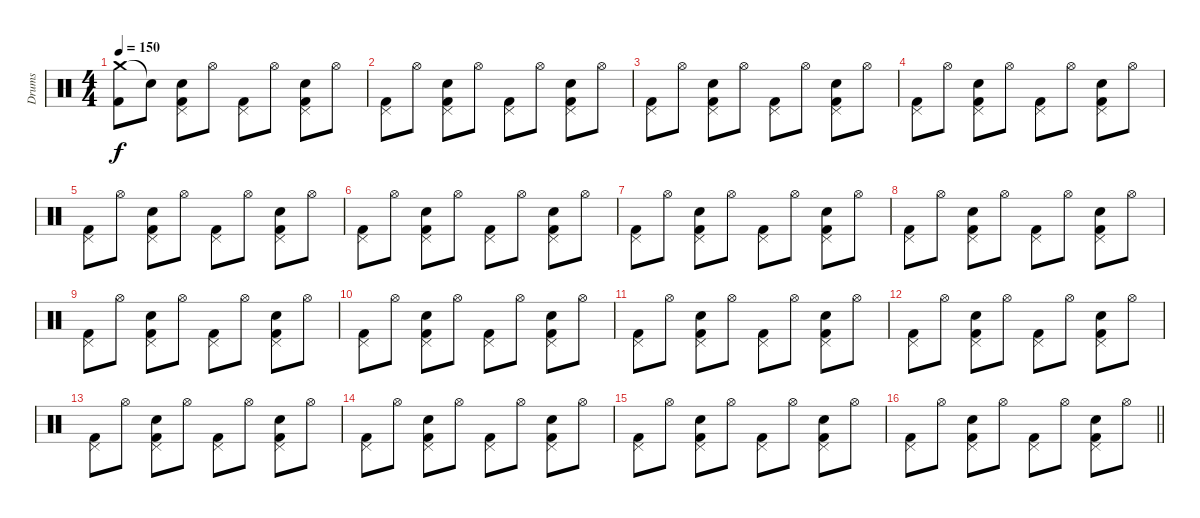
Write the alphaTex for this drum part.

\track ("Drums" "Drums") {instrument percussion}
\staff {score}
\articulation defaults
\ts (4 4)
\tempo 150
\clef neutral
\ks c
("Crash medium (hit)" "Kick (hit) 2").8{dy f} "Snare (hit)"{t}.8 ("Pedal Hi-Hat (hit)" "Electric Snare (hit)" "Kick (hit) 2").8 "Hi-Hat (open)".8 ("Pedal Hi-Hat (hit)" "Kick (hit) 2").8 "Hi-Hat (open)".8 ("Pedal Hi-Hat (hit)" "Electric Snare (hit)" "Kick (hit) 2").8 "Hi-Hat (open)".8 |
("Pedal Hi-Hat (hit)" "Kick (hit) 2").8 "Hi-Hat (open)".8 ("Pedal Hi-Hat (hit)" "Electric Snare (hit)" "Kick (hit) 2").8 "Hi-Hat (open)".8 ("Pedal Hi-Hat (hit)" "Kick (hit) 2").8 "Hi-Hat (open)".8 ("Pedal Hi-Hat (hit)" "Electric Snare (hit)" "Kick (hit) 2").8 "Hi-Hat (open)".8 |
("Pedal Hi-Hat (hit)" "Kick (hit) 2").8 "Hi-Hat (open)".8 ("Pedal Hi-Hat (hit)" "Electric Snare (hit)" "Kick (hit) 2").8 "Hi-Hat (open)".8 ("Pedal Hi-Hat (hit)" "Kick (hit) 2").8 "Hi-Hat (open)".8 ("Pedal Hi-Hat (hit)" "Electric Snare (hit)" "Kick (hit) 2").8 "Hi-Hat (open)".8 |
("Pedal Hi-Hat (hit)" "Kick (hit) 2").8 "Hi-Hat (open)".8 ("Pedal Hi-Hat (hit)" "Electric Snare (hit)" "Kick (hit) 2").8 "Hi-Hat (open)".8 ("Pedal Hi-Hat (hit)" "Kick (hit) 2").8 "Hi-Hat (open)".8 ("Pedal Hi-Hat (hit)" "Electric Snare (hit)" "Kick (hit) 2").8 "Hi-Hat (open)".8 |
("Pedal Hi-Hat (hit)" "Kick (hit) 2").8 "Hi-Hat (open)".8 ("Pedal Hi-Hat (hit)" "Electric Snare (hit)" "Kick (hit) 2").8 "Hi-Hat (open)".8 ("Pedal Hi-Hat (hit)" "Kick (hit) 2").8 "Hi-Hat (open)".8 ("Pedal Hi-Hat (hit)" "Electric Snare (hit)" "Kick (hit) 2").8 "Hi-Hat (open)".8 |
("Pedal Hi-Hat (hit)" "Kick (hit) 2").8 "Hi-Hat (open)".8 ("Pedal Hi-Hat (hit)" "Electric Snare (hit)" "Kick (hit) 2").8 "Hi-Hat (open)".8 ("Pedal Hi-Hat (hit)" "Kick (hit) 2").8 "Hi-Hat (open)".8 ("Pedal Hi-Hat (hit)" "Electric Snare (hit)" "Kick (hit) 2").8 "Hi-Hat (open)".8 |
("Pedal Hi-Hat (hit)" "Kick (hit) 2").8 "Hi-Hat (open)".8 ("Pedal Hi-Hat (hit)" "Electric Snare (hit)" "Kick (hit) 2").8 "Hi-Hat (open)".8 ("Pedal Hi-Hat (hit)" "Kick (hit) 2").8 "Hi-Hat (open)".8 ("Pedal Hi-Hat (hit)" "Electric Snare (hit)" "Kick (hit) 2").8 "Hi-Hat (open)".8 |
("Pedal Hi-Hat (hit)" "Kick (hit) 2").8 "Hi-Hat (open)".8 ("Pedal Hi-Hat (hit)" "Electric Snare (hit)" "Kick (hit) 2").8 "Hi-Hat (open)".8 ("Pedal Hi-Hat (hit)" "Kick (hit) 2").8 "Hi-Hat (open)".8 ("Pedal Hi-Hat (hit)" "Electric Snare (hit)" "Kick (hit) 2").8 "Hi-Hat (open)".8 |
("Pedal Hi-Hat (hit)" "Kick (hit) 2").8 "Hi-Hat (open)".8 ("Pedal Hi-Hat (hit)" "Electric Snare (hit)" "Kick (hit) 2").8 "Hi-Hat (open)".8 ("Pedal Hi-Hat (hit)" "Kick (hit) 2").8 "Hi-Hat (open)".8 ("Pedal Hi-Hat (hit)" "Electric Snare (hit)" "Kick (hit) 2").8 "Hi-Hat (open)".8 |
("Pedal Hi-Hat (hit)" "Kick (hit) 2").8 "Hi-Hat (open)".8 ("Pedal Hi-Hat (hit)" "Electric Snare (hit)" "Kick (hit) 2").8 "Hi-Hat (open)".8 ("Pedal Hi-Hat (hit)" "Kick (hit) 2").8 "Hi-Hat (open)".8 ("Pedal Hi-Hat (hit)" "Electric Snare (hit)" "Kick (hit) 2").8 "Hi-Hat (open)".8 |
("Pedal Hi-Hat (hit)" "Kick (hit) 2").8 "Hi-Hat (open)".8 ("Pedal Hi-Hat (hit)" "Electric Snare (hit)" "Kick (hit) 2").8 "Hi-Hat (open)".8 ("Pedal Hi-Hat (hit)" "Kick (hit) 2").8 "Hi-Hat (open)".8 ("Pedal Hi-Hat (hit)" "Electric Snare (hit)" "Kick (hit) 2").8 "Hi-Hat (open)".8 |
("Pedal Hi-Hat (hit)" "Kick (hit) 2").8 "Hi-Hat (open)".8 ("Pedal Hi-Hat (hit)" "Electric Snare (hit)" "Kick (hit) 2").8 "Hi-Hat (open)".8 ("Pedal Hi-Hat (hit)" "Kick (hit) 2").8 "Hi-Hat (open)".8 ("Pedal Hi-Hat (hit)" "Electric Snare (hit)" "Kick (hit) 2").8 "Hi-Hat (open)".8 |
("Pedal Hi-Hat (hit)" "Kick (hit) 2").8 "Hi-Hat (open)".8 ("Pedal Hi-Hat (hit)" "Electric Snare (hit)" "Kick (hit) 2").8 "Hi-Hat (open)".8 ("Pedal Hi-Hat (hit)" "Kick (hit) 2").8 "Hi-Hat (open)".8 ("Pedal Hi-Hat (hit)" "Electric Snare (hit)" "Kick (hit) 2").8 "Hi-Hat (open)".8 |
("Pedal Hi-Hat (hit)" "Kick (hit) 2").8 "Hi-Hat (open)".8 ("Pedal Hi-Hat (hit)" "Electric Snare (hit)" "Kick (hit) 2").8 "Hi-Hat (open)".8 ("Pedal Hi-Hat (hit)" "Kick (hit) 2").8 "Hi-Hat (open)".8 ("Pedal Hi-Hat (hit)" "Electric Snare (hit)" "Kick (hit) 2").8 "Hi-Hat (open)".8 |
("Pedal Hi-Hat (hit)" "Kick (hit) 2").8 "Hi-Hat (open)".8 ("Pedal Hi-Hat (hit)" "Electric Snare (hit)" "Kick (hit) 2").8 "Hi-Hat (open)".8 ("Pedal Hi-Hat (hit)" "Kick (hit) 2").8 "Hi-Hat (open)".8 ("Pedal Hi-Hat (hit)" "Electric Snare (hit)" "Kick (hit) 2").8 "Hi-Hat (open)".8 |
\barLineRight lightlight
("Pedal Hi-Hat (hit)" "Kick (hit) 2").8 "Hi-Hat (open)".8 ("Pedal Hi-Hat (hit)" "Electric Snare (hit)" "Kick (hit) 2").8 "Hi-Hat (open)".8 ("Pedal Hi-Hat (hit)" "Kick (hit) 2").8 "Hi-Hat (open)".8 ("Pedal Hi-Hat (hit)" "Electric Snare (hit)" "Kick (hit) 2").8 "Hi-Hat (open)".8
